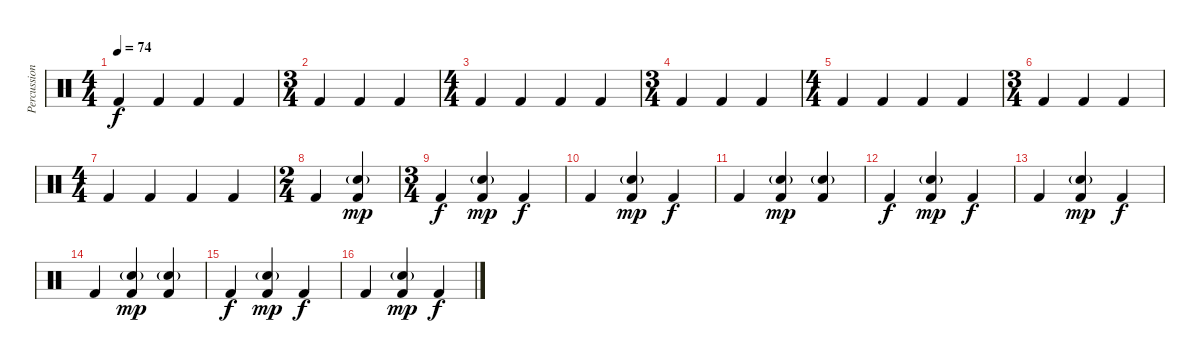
\track ("Percussion" "Percussion") {instrument percussion}
\staff {score}
\articulation defaults
\ts (4 4)
\tempo 74
\clef neutral
\ks c "Kick (hit) 2".4{dy f} "Kick (hit) 2".4 "Kick (hit) 2".4 "Kick (hit) 2".4
|
\ts (3 4)
"Kick (hit) 2".4 "Kick (hit) 2".4 "Kick (hit) 2".4 |
\ts (4 4)
"Kick (hit) 2".4 "Kick (hit) 2".4 "Kick (hit) 2".4 "Kick (hit) 2".4 |
\ts (3 4)
"Kick (hit) 2".4 "Kick (hit) 2".4 "Kick (hit) 2".4 |
\ts (4 4)
"Kick (hit) 2".4 "Kick (hit) 2".4 "Kick (hit) 2".4 "Kick (hit) 2".4 |
\ts (3 4)
"Kick (hit) 2".4 "Kick (hit) 2".4 "Kick (hit) 2".4 |
\ts (4 4)
"Kick (hit) 2".4 "Kick (hit) 2".4 "Kick (hit) 2".4 "Kick (hit) 2".4 |
\ts (2 4)
"Kick (hit) 2".4 ("Snare (hit) 2"{g} "Kick (hit) 2").4{dy mp} |
\ts (3 4)
"Kick (hit) 2".4{dy f} ("Snare (hit) 2"{g} "Kick (hit) 2").4{dy mp} "Kick (hit) 2".4{dy f} |
"Kick (hit) 2".4 ("Snare (hit) 2"{g} "Kick (hit) 2").4{dy mp} "Kick (hit) 2".4{dy f} |
"Kick (hit) 2".4 ("Snare (hit) 2"{g} "Kick (hit) 2").4{dy mp} ("Snare (hit) 2"{g} "Kick (hit) 2").4 |
"Kick (hit) 2".4{dy f} ("Snare (hit) 2"{g} "Kick (hit) 2").4{dy mp} "Kick (hit) 2".4{dy f} |
"Kick (hit) 2".4 ("Snare (hit) 2"{g} "Kick (hit) 2").4{dy mp} "Kick (hit) 2".4{dy f} |
"Kick (hit) 2".4 ("Snare (hit) 2"{g} "Kick (hit) 2").4{dy mp} ("Snare (hit) 2"{g} "Kick (hit) 2").4 |
"Kick (hit) 2".4{dy f} ("Snare (hit) 2"{g} "Kick (hit) 2").4{dy mp} "Kick (hit) 2".4{dy f} |
"Kick (hit) 2".4 ("Snare (hit) 2"{g} "Kick (hit) 2").4{dy mp} "Kick (hit) 2".4{dy f}
